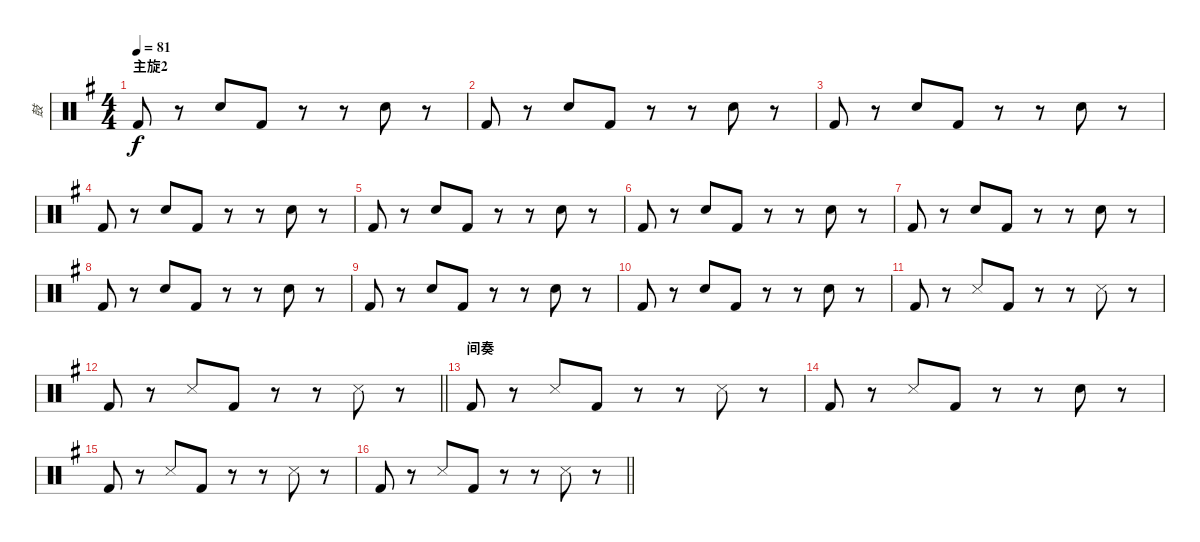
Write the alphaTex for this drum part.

\track ("鼓" "鼓") {instrument percussion}
\staff {score}
\articulation defaults
\ts (4 4)
\section ("" "主旋2")
\tempo 81
\clef neutral
\ks g "Kick (hit) 2".8{dy f}
r.8 "Electric Snare (hit)".8 "Kick (hit) 2".8 r.8 r.8 "Electric Snare (hit)".8 r.8 |
"Kick (hit) 2".8 r.8 "Electric Snare (hit)".8 "Kick (hit) 2".8 r.8 r.8 "Electric Snare (hit)".8 r.8 |
"Kick (hit) 2".8 r.8 "Electric Snare (hit)".8 "Kick (hit) 2".8 r.8 r.8 "Electric Snare (hit)".8 r.8 |
"Kick (hit) 2".8 r.8 "Electric Snare (hit)".8 "Kick (hit) 2".8 r.8 r.8 "Electric Snare (hit)".8 r.8 |
"Kick (hit) 2".8 r.8 "Electric Snare (hit)".8 "Kick (hit) 2".8 r.8 r.8 "Electric Snare (hit)".8 r.8 |
"Kick (hit) 2".8 r.8 "Electric Snare (hit)".8 "Kick (hit) 2".8 r.8 r.8 "Electric Snare (hit)".8 r.8 |
"Kick (hit) 2".8 r.8 "Electric Snare (hit)".8 "Kick (hit) 2".8 r.8 r.8 "Electric Snare (hit)".8 r.8 |
"Kick (hit) 2".8 r.8 "Electric Snare (hit)".8 "Kick (hit) 2".8 r.8 r.8 "Electric Snare (hit)".8 r.8 |
"Kick (hit) 2".8 r.8 "Electric Snare (hit)".8 "Kick (hit) 2".8 r.8 r.8 "Electric Snare (hit)".8 r.8 |
"Kick (hit) 2".8 r.8 "Electric Snare (hit)".8 "Kick (hit) 2".8 r.8 r.8 "Electric Snare (hit)".8 r.8 |
"Kick (hit) 2".8 r.8 "Metronome (hit)".8 "Kick (hit) 2".8 r.8 r.8 "Metronome (hit)".8 r.8 |
\barLineRight lightlight "Kick (hit) 2".8
r.8 "Metronome (hit)".8 "Kick (hit) 2".8 r.8 r.8 "Metronome (hit)".8 r.8 |
\section ("" "间奏")
"Kick (hit) 2".8 r.8 "Metronome (hit)".8 "Kick (hit) 2".8 r.8 r.8 "Metronome (hit)".8 r.8 |
"Kick (hit) 2".8 r.8 "Metronome (hit)".8 "Kick (hit) 2".8 r.8 r.8 "Electric Snare (hit)".8 r.8 |
"Kick (hit) 2".8 r.8 "Metronome (hit)".8 "Kick (hit) 2".8 r.8 r.8 "Metronome (hit)".8 r.8 |
\barLineRight lightlight "Kick (hit) 2".8
r.8 "Metronome (hit)".8 "Kick (hit) 2".8 r.8 r.8 "Metronome (hit)".8 r.8
